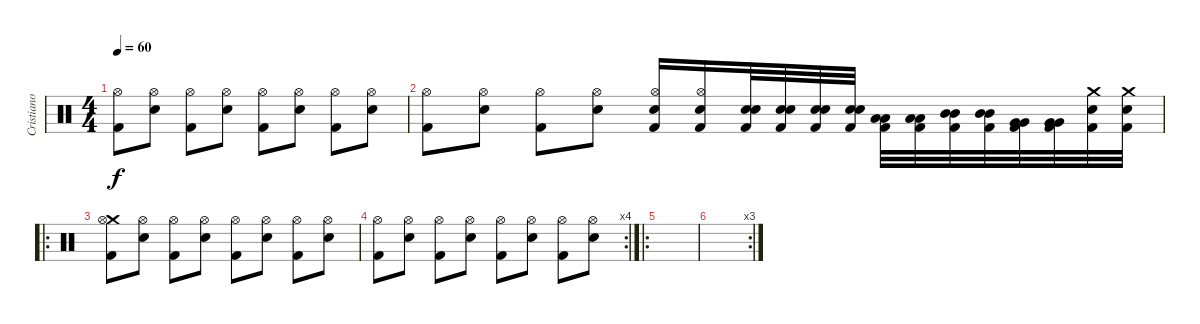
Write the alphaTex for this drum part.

\track ("Cristiano Mozzati" "Cristiano ") {instrument percussion}
\staff {score}
\articulation defaults
\ts (4 4)
\tempo 60
\clef neutral
\ks c
("Kick (hit) 2" "Hi-Hat (open)").8{dy f} ("Electric Snare (hit)" "Hi-Hat (open)").8 ("Kick (hit) 2" "Hi-Hat (open)").8 ("Electric Snare (hit)" "Hi-Hat (open)").8 ("Kick (hit) 2" "Hi-Hat (open)").8 ("Electric Snare (hit)" "Hi-Hat (open)").8 ("Kick (hit) 2" "Hi-Hat (open)").8 ("Electric Snare (hit)" "Hi-Hat (open)").8 |
("Kick (hit) 2" "Hi-Hat (open)").8 ("Electric Snare (hit)" "Hi-Hat (open)").8 ("Kick (hit) 2" "Hi-Hat (open)").8 ("Electric Snare (hit)" "Hi-Hat (open)").8 ("Kick (hit) 2" "Electric Snare (hit)" "Hi-Hat (open)").16 ("Kick (hit) 2" "Electric Snare (hit)" "Hi-Hat (open)").16 ("Electric Snare (hit)" "Electric Snare (hit)" "Kick (hit) 2").32 ("Electric Snare (hit)" "Electric Snare (hit)" "Kick (hit) 2").32 ("Electric Snare (hit)" "Electric Snare (hit)" "Kick (hit) 2").32 ("Electric Snare (hit)" "Electric Snare (hit)" "Kick (hit) 2").32 ("Low Tom (hit)" "Low Tom (hit)" "Kick (hit) 2").32 ("Low Tom (hit)" "Low Tom (hit)" "Kick (hit) 2").32 ("Mid Tom (hit)" "Mid Tom (hit)" "Kick (hit) 2").32 ("Mid Tom (hit)" "Mid Tom (hit)" "Kick (hit) 2").32 ("Very Low Tom (hit)" "Very Low Tom (hit)" "Kick (hit) 2").32 ("Very Low Tom (hit)" "Very Low Tom (hit)" "Kick (hit) 2").32 ("Electric Snare (hit)" "Crash medium (hit)" "Kick (hit) 2").32 ("Crash medium (hit)" "Electric Snare (hit)" "Kick (hit) 2").32 |
\ro
("Crash medium (hit)" "Kick (hit) 2" "Hi-Hat (open)").8 ("Electric Snare (hit)" "Hi-Hat (open)").8 ("Kick (hit) 2" "Hi-Hat (open)").8 ("Electric Snare (hit)" "Hi-Hat (open)").8 ("Kick (hit) 2" "Hi-Hat (open)").8 ("Electric Snare (hit)" "Hi-Hat (open)").8 ("Kick (hit) 2" "Hi-Hat (open)").8 ("Electric Snare (hit)" "Hi-Hat (open)").8 |
\rc 4
("Kick (hit) 2" "Hi-Hat (open)").8 ("Electric Snare (hit)" "Hi-Hat (open)").8 ("Kick (hit) 2" "Hi-Hat (open)").8 ("Electric Snare (hit)" "Hi-Hat (open)").8 ("Kick (hit) 2" "Hi-Hat (open)").8 ("Electric Snare (hit)" "Hi-Hat (open)").8 ("Kick (hit) 2" "Hi-Hat (open)").8 ("Electric Snare (hit)" "Hi-Hat (open)").8 |
\ro
|
\rc 3
